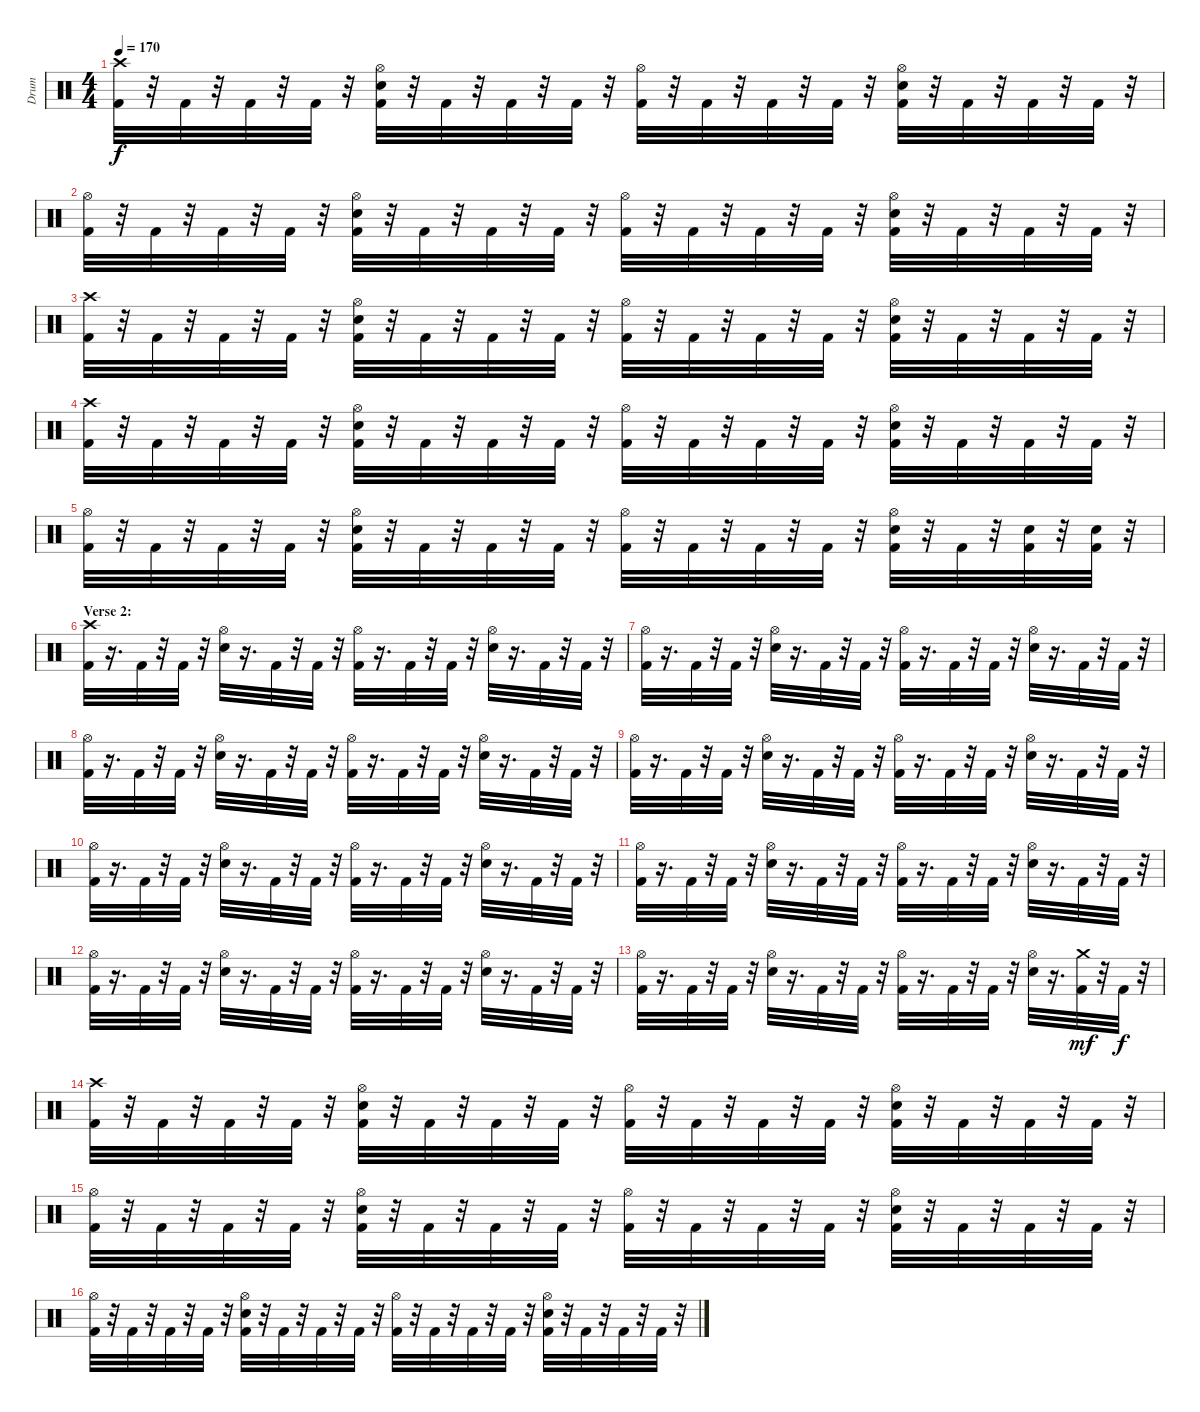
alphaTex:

\track ("Drum" "Drum") {instrument percussion}
\staff {score}
\articulation defaults
\ts (4 4)
\tempo 170
\clef neutral
\ks c
("Crash high (hit)" "Kick (hit) 2").32{dy f} r.32 "Kick (hit) 2".32 r.32 "Kick (hit) 2".32 r.32 "Kick (hit) 2".32 r.32 ("Snare (hit) 2" "Hi-Hat (open)" "Kick (hit) 2").32 r.32 "Kick (hit) 2".32 r.32 "Kick (hit) 2".32 r.32 "Kick (hit) 2".32 r.32 ("Hi-Hat (open)" "Kick (hit) 2").32 r.32 "Kick (hit) 2".32 r.32 "Kick (hit) 2".32 r.32 "Kick (hit) 2".32 r.32 ("Snare (hit) 2" "Hi-Hat (open)" "Kick (hit) 2").32 r.32 "Kick (hit) 2".32 r.32 "Kick (hit) 2".32 r.32 "Kick (hit) 2".32 r.32 |
("Hi-Hat (open)" "Kick (hit) 2").32 r.32 "Kick (hit) 2".32 r.32 "Kick (hit) 2".32 r.32 "Kick (hit) 2".32 r.32 ("Snare (hit) 2" "Hi-Hat (open)" "Kick (hit) 2").32 r.32 "Kick (hit) 2".32 r.32 "Kick (hit) 2".32 r.32 "Kick (hit) 2".32 r.32 ("Hi-Hat (open)" "Kick (hit) 2").32 r.32 "Kick (hit) 2".32 r.32 "Kick (hit) 2".32 r.32 "Kick (hit) 2".32 r.32 ("Snare (hit) 2" "Hi-Hat (open)" "Kick (hit) 2").32 r.32 "Kick (hit) 2".32 r.32 "Kick (hit) 2".32 r.32 "Kick (hit) 2".32 r.32 |
("Crash high (hit)" "Kick (hit) 2").32 r.32 "Kick (hit) 2".32 r.32 "Kick (hit) 2".32 r.32 "Kick (hit) 2".32 r.32 ("Hi-Hat (open)" "Snare (hit) 2" "Kick (hit) 2").32 r.32 "Kick (hit) 2".32 r.32 "Kick (hit) 2".32 r.32 "Kick (hit) 2".32 r.32 ("Hi-Hat (open)" "Kick (hit) 2").32 r.32 "Kick (hit) 2".32 r.32 "Kick (hit) 2".32 r.32 "Kick (hit) 2".32 r.32 ("Hi-Hat (open)" "Snare (hit) 2" "Kick (hit) 2").32 r.32 "Kick (hit) 2".32 r.32 "Kick (hit) 2".32 r.32 "Kick (hit) 2".32 r.32 |
("Crash high (hit)" "Kick (hit) 2").32 r.32 "Kick (hit) 2".32 r.32 "Kick (hit) 2".32 r.32 "Kick (hit) 2".32 r.32 ("Hi-Hat (open)" "Snare (hit) 2" "Kick (hit) 2").32 r.32 "Kick (hit) 2".32 r.32 "Kick (hit) 2".32 r.32 "Kick (hit) 2".32 r.32 ("Hi-Hat (open)" "Kick (hit) 2").32 r.32 "Kick (hit) 2".32 r.32 "Kick (hit) 2".32 r.32 "Kick (hit) 2".32 r.32 ("Hi-Hat (open)" "Snare (hit) 2" "Kick (hit) 2").32 r.32 "Kick (hit) 2".32 r.32 "Kick (hit) 2".32 r.32 "Kick (hit) 2".32 r.32 |
("Hi-Hat (open)" "Kick (hit) 2").32 r.32 "Kick (hit) 2".32 r.32 "Kick (hit) 2".32 r.32 "Kick (hit) 2".32 r.32 ("Snare (hit) 2" "Hi-Hat (open)" "Kick (hit) 2").32 r.32 "Kick (hit) 2".32 r.32 "Kick (hit) 2".32 r.32 "Kick (hit) 2".32 r.32 ("Hi-Hat (open)" "Kick (hit) 2").32 r.32 "Kick (hit) 2".32 r.32 "Kick (hit) 2".32 r.32 "Kick (hit) 2".32 r.32 ("Snare (hit) 2" "Hi-Hat (open)" "Kick (hit) 2").32 r.32 "Kick (hit) 2".32 r.32 ("Snare (hit) 2" "Kick (hit) 2").32 r.32 ("Snare (hit) 2" "Kick (hit) 2").32 r.32 |
\section ("" "Verse 2:")
("Crash high (hit)" "Kick (hit) 2").32 r.16{d} "Kick (hit) 2".32 r.32 "Kick (hit) 2".32 r.32 ("Snare (hit) 2" "Hi-Hat (open)").32 r.16{d} "Kick (hit) 2".32 r.32 "Kick (hit) 2".32 r.32 ("Kick (hit) 2" "Hi-Hat (open)").32 r.16{d} "Kick (hit) 2".32 r.32 "Kick (hit) 2".32 r.32 ("Snare (hit) 2" "Hi-Hat (open)").32 r.16{d} "Kick (hit) 2".32 r.32 "Kick (hit) 2".32 r.32 |
("Kick (hit) 2" "Hi-Hat (open)").32 r.16{d} "Kick (hit) 2".32 r.32 "Kick (hit) 2".32 r.32 ("Snare (hit) 2" "Hi-Hat (open)").32 r.16{d} "Kick (hit) 2".32 r.32 "Kick (hit) 2".32 r.32 ("Kick (hit) 2" "Hi-Hat (open)").32 r.16{d} "Kick (hit) 2".32 r.32 "Kick (hit) 2".32 r.32 ("Snare (hit) 2" "Hi-Hat (open)").32 r.16{d} "Kick (hit) 2".32 r.32 "Kick (hit) 2".32 r.32 |
("Hi-Hat (open)" "Kick (hit) 2").32 r.16{d} "Kick (hit) 2".32 r.32 "Kick (hit) 2".32 r.32 ("Hi-Hat (open)" "Snare (hit) 2").32 r.16{d} "Kick (hit) 2".32 r.32 "Kick (hit) 2".32 r.32 ("Hi-Hat (open)" "Kick (hit) 2").32 r.16{d} "Kick (hit) 2".32 r.32 "Kick (hit) 2".32 r.32 ("Hi-Hat (open)" "Snare (hit) 2").32 r.16{d} "Kick (hit) 2".32 r.32 "Kick (hit) 2".32 r.32 |
("Hi-Hat (open)" "Kick (hit) 2").32 r.16{d} "Kick (hit) 2".32 r.32 "Kick (hit) 2".32 r.32 ("Hi-Hat (open)" "Snare (hit) 2").32 r.16{d} "Kick (hit) 2".32 r.32 "Kick (hit) 2".32 r.32 ("Hi-Hat (open)" "Kick (hit) 2").32 r.16{d} "Kick (hit) 2".32 r.32 "Kick (hit) 2".32 r.32 ("Hi-Hat (open)" "Snare (hit) 2").32 r.16{d} "Kick (hit) 2".32 r.32 "Kick (hit) 2".32 r.32 |
("Kick (hit) 2" "Hi-Hat (open)").32 r.16{d} "Kick (hit) 2".32 r.32 "Kick (hit) 2".32 r.32 ("Hi-Hat (open)" "Snare (hit) 2").32 r.16{d} "Kick (hit) 2".32 r.32 "Kick (hit) 2".32 r.32 ("Hi-Hat (open)" "Kick (hit) 2").32 r.16{d} "Kick (hit) 2".32 r.32 "Kick (hit) 2".32 r.32 ("Hi-Hat (open)" "Snare (hit) 2").32 r.16{d} "Kick (hit) 2".32 r.32 "Kick (hit) 2".32 r.32 |
("Hi-Hat (open)" "Kick (hit) 2").32 r.16{d} "Kick (hit) 2".32 r.32 "Kick (hit) 2".32 r.32 ("Hi-Hat (open)" "Snare (hit) 2").32 r.16{d} "Kick (hit) 2".32 r.32 "Kick (hit) 2".32 r.32 ("Hi-Hat (open)" "Kick (hit) 2").32 r.16{d} "Kick (hit) 2".32 r.32 "Kick (hit) 2".32 r.32 ("Hi-Hat (open)" "Snare (hit) 2").32 r.16{d} "Kick (hit) 2".32 r.32 "Kick (hit) 2".32 r.32 |
("Kick (hit) 2" "Hi-Hat (open)").32 r.16{d} "Kick (hit) 2".32 r.32 "Kick (hit) 2".32 r.32 ("Hi-Hat (open)" "Snare (hit) 2").32 r.16{d} "Kick (hit) 2".32 r.32 "Kick (hit) 2".32 r.32 ("Hi-Hat (open)" "Kick (hit) 2").32 r.16{d} "Kick (hit) 2".32 r.32 "Kick (hit) 2".32 r.32 ("Hi-Hat (open)" "Snare (hit) 2").32 r.16{d} "Kick (hit) 2".32 r.32 "Kick (hit) 2".32 r.32 |
("Hi-Hat (open)" "Kick (hit) 2").32 r.16{d} "Kick (hit) 2".32 r.32 "Kick (hit) 2".32 r.32 ("Hi-Hat (open)" "Snare (hit) 2").32 r.16{d} "Kick (hit) 2".32 r.32 "Kick (hit) 2".32 r.32 ("Hi-Hat (open)" "Kick (hit) 2").32 r.16{d} "Kick (hit) 2".32 r.32 "Kick (hit) 2".32 r.32 ("Hi-Hat (open)" "Snare (hit) 2").32 r.16{d} ("Crash medium (hit)" "Kick (hit) 2").32{dy mf} r.32 "Kick (hit) 2".32{dy f} r.32 |
("Kick (hit) 2" "Crash high (hit)").32 r.32 "Kick (hit) 2".32 r.32 "Kick (hit) 2".32 r.32 "Kick (hit) 2".32 r.32 ("Kick (hit) 2" "Hi-Hat (open)" "Snare (hit) 2").32 r.32 "Kick (hit) 2".32 r.32 "Kick (hit) 2".32 r.32 "Kick (hit) 2".32 r.32 ("Kick (hit) 2" "Hi-Hat (open)").32 r.32 "Kick (hit) 2".32 r.32 "Kick (hit) 2".32 r.32 "Kick (hit) 2".32 r.32 ("Kick (hit) 2" "Hi-Hat (open)" "Snare (hit) 2").32 r.32 "Kick (hit) 2".32 r.32 "Kick (hit) 2".32 r.32 "Kick (hit) 2".32 r.32 |
("Kick (hit) 2" "Hi-Hat (open)").32 r.32 "Kick (hit) 2".32 r.32 "Kick (hit) 2".32 r.32 "Kick (hit) 2".32 r.32 ("Kick (hit) 2" "Hi-Hat (open)" "Snare (hit) 2").32 r.32 "Kick (hit) 2".32 r.32 "Kick (hit) 2".32 r.32 "Kick (hit) 2".32 r.32 ("Kick (hit) 2" "Hi-Hat (open)").32 r.32 "Kick (hit) 2".32 r.32 "Kick (hit) 2".32 r.32 "Kick (hit) 2".32 r.32 ("Kick (hit) 2" "Snare (hit) 2" "Hi-Hat (open)").32 r.32 "Kick (hit) 2".32 r.32 "Kick (hit) 2".32 r.32 "Kick (hit) 2".32 r.32 |
("Kick (hit) 2" "Hi-Hat (open)").32 r.32 "Kick (hit) 2".32 r.32 "Kick (hit) 2".32 r.32 "Kick (hit) 2".32 r.32 ("Kick (hit) 2" "Snare (hit) 2" "Hi-Hat (open)").32 r.32 "Kick (hit) 2".32 r.32 "Kick (hit) 2".32 r.32 "Kick (hit) 2".32 r.32 ("Kick (hit) 2" "Hi-Hat (open)").32 r.32 "Kick (hit) 2".32 r.32 "Kick (hit) 2".32 r.32 "Kick (hit) 2".32 r.32 ("Kick (hit) 2" "Snare (hit) 2" "Hi-Hat (open)").32 r.32 "Kick (hit) 2".32 r.32 "Kick (hit) 2".32 r.32 "Kick (hit) 2".32 r.32
